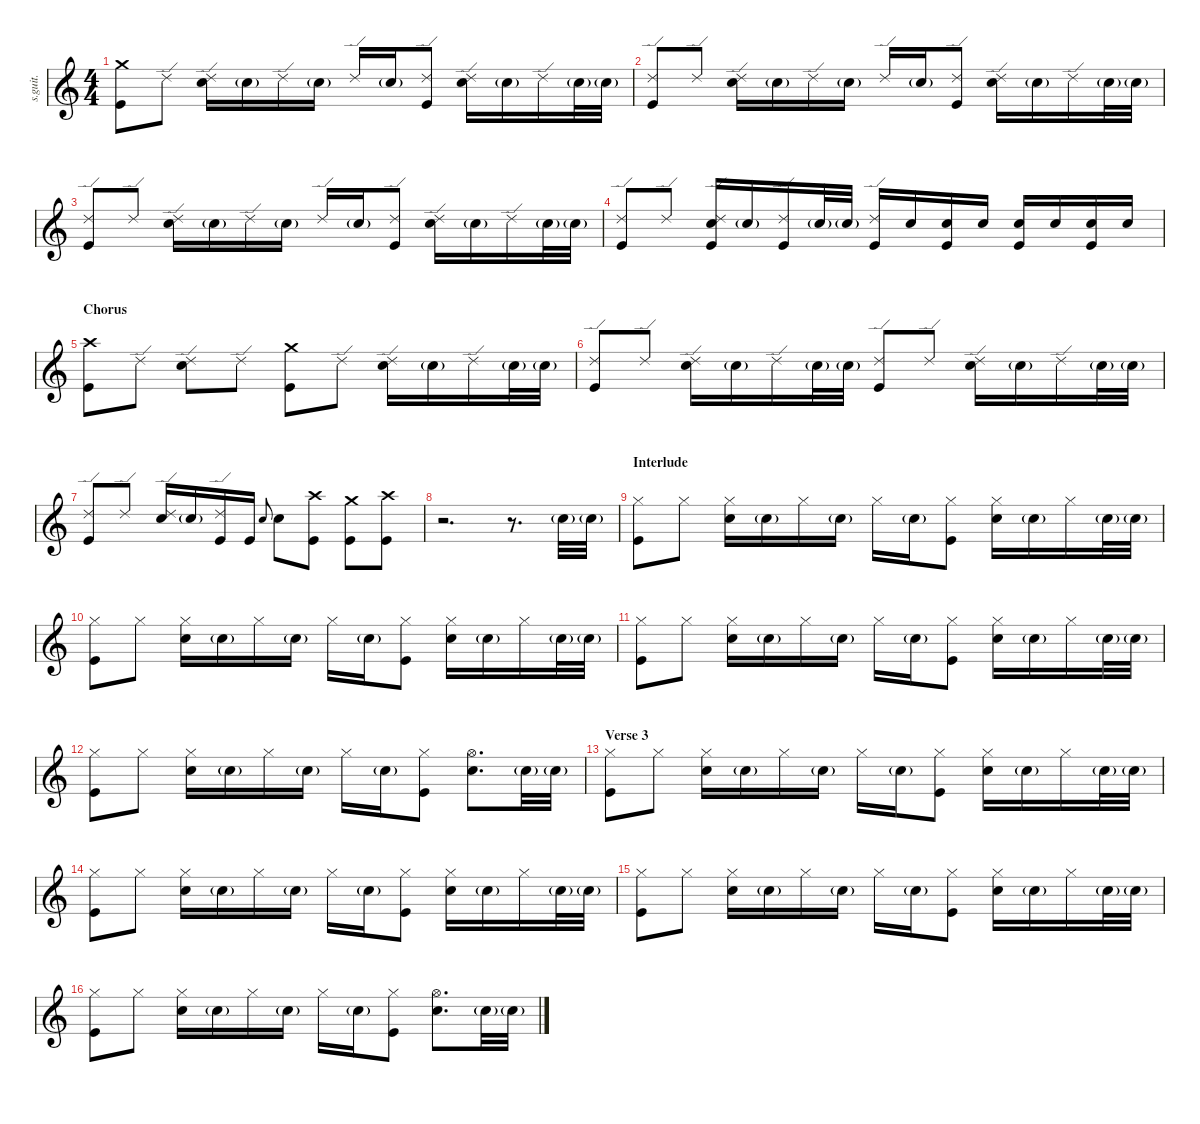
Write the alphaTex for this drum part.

\defaultSystemsLayout 4
\hideDynamics
\bracketExtendMode nobrackets
\track ("C. Smith" "s.guit.") {instrument percussion}
\staff {score}
\articulation defaults
\ts (4 4)
\tempo (96 hide)
\clef g2
\ks c
("Crash medium (hit)" "Kick (hit)").8{lyrics (0 "") lyrics (1 "") lyrics (2 "") lyrics (3 "") lyrics (4 "") dy f} "Ride (edge) 2".8{lyrics (0 "") lyrics (1 "") lyrics (2 "") lyrics (3 "") lyrics (4 "")} ("Ride (edge) 2" "Snare (hit) 2").16{lyrics (0 "") lyrics (1 "") lyrics (2 "") lyrics (3 "") lyrics (4 "")} "Snare (hit) 2"{g}.16{lyrics (0 "") lyrics (1 "") lyrics (2 "") lyrics (3 "") lyrics (4 "") dy ppp} "Ride (edge) 2".16{lyrics (0 "") lyrics (1 "") lyrics (2 "") lyrics (3 "") lyrics (4 "") dy f} "Snare (hit) 2"{g}.16{lyrics (0 "") lyrics (1 "") lyrics (2 "") lyrics (3 "") lyrics (4 "") dy ppp} "Ride (edge) 2".16{lyrics (0 "") lyrics (1 "") lyrics (2 "") lyrics (3 "") lyrics (4 "") dy f} "Snare (hit) 2"{g}.16{lyrics (0 "") lyrics (1 "") lyrics (2 "") lyrics (3 "") lyrics (4 "") dy ppp} ("Ride (edge) 2" "Kick (hit)").8{lyrics (0 "") lyrics (1 "") lyrics (2 "") lyrics (3 "") lyrics (4 "") dy f} ("Ride (edge) 2" "Snare (hit) 2").16{lyrics (0 "") lyrics (1 "") lyrics (2 "") lyrics (3 "") lyrics (4 "")} "Snare (hit) 2"{g}.16{lyrics (0 "") lyrics (1 "") lyrics (2 "") lyrics (3 "") lyrics (4 "") dy ppp} "Ride (edge) 2".16{lyrics (0 "") lyrics (1 "") lyrics (2 "") lyrics (3 "") lyrics (4 "") dy f} "Snare (hit) 2"{g}.32{lyrics (0 "") lyrics (1 "") lyrics (2 "") lyrics (3 "") lyrics (4 "") dy ppp} "Snare (hit) 2"{g}.32{lyrics (0 "") lyrics (1 "") lyrics (2 "") lyrics (3 "") lyrics (4 "")} |
("Ride (edge) 2" "Kick (hit)").8{lyrics (0 "") lyrics (1 "") lyrics (2 "") lyrics (3 "") lyrics (4 "") dy f} "Ride (edge) 2".8{lyrics (0 "") lyrics (1 "") lyrics (2 "") lyrics (3 "") lyrics (4 "")} ("Ride (edge) 2" "Snare (hit) 2").16{lyrics (0 "") lyrics (1 "") lyrics (2 "") lyrics (3 "") lyrics (4 "")} "Snare (hit) 2"{g}.16{lyrics (0 "") lyrics (1 "") lyrics (2 "") lyrics (3 "") lyrics (4 "") dy ppp} "Ride (edge) 2".16{lyrics (0 "") lyrics (1 "") lyrics (2 "") lyrics (3 "") lyrics (4 "") dy f} "Snare (hit) 2"{g}.16{lyrics (0 "") lyrics (1 "") lyrics (2 "") lyrics (3 "") lyrics (4 "") dy ppp} "Ride (edge) 2".16{lyrics (0 "") lyrics (1 "") lyrics (2 "") lyrics (3 "") lyrics (4 "") dy f} "Snare (hit) 2"{g}.16{lyrics (0 "") lyrics (1 "") lyrics (2 "") lyrics (3 "") lyrics (4 "") dy ppp} ("Ride (edge) 2" "Kick (hit)").8{lyrics (0 "") lyrics (1 "") lyrics (2 "") lyrics (3 "") lyrics (4 "") dy f} ("Ride (edge) 2" "Snare (hit) 2").16{lyrics (0 "") lyrics (1 "") lyrics (2 "") lyrics (3 "") lyrics (4 "")} "Snare (hit) 2"{g}.16{lyrics (0 "") lyrics (1 "") lyrics (2 "") lyrics (3 "") lyrics (4 "") dy ppp} "Ride (edge) 2".16{lyrics (0 "") lyrics (1 "") lyrics (2 "") lyrics (3 "") lyrics (4 "") dy f} "Snare (hit) 2"{g}.32{lyrics (0 "") lyrics (1 "") lyrics (2 "") lyrics (3 "") lyrics (4 "") dy ppp} "Snare (hit) 2"{g}.32{lyrics (0 "") lyrics (1 "") lyrics (2 "") lyrics (3 "") lyrics (4 "")} |
("Ride (edge) 2" "Kick (hit)").8{lyrics (0 "") lyrics (1 "") lyrics (2 "") lyrics (3 "") lyrics (4 "") dy f} "Ride (edge) 2".8{lyrics (0 "") lyrics (1 "") lyrics (2 "") lyrics (3 "") lyrics (4 "")} ("Ride (edge) 2" "Snare (hit) 2").16{lyrics (0 "") lyrics (1 "") lyrics (2 "") lyrics (3 "") lyrics (4 "")} "Snare (hit) 2"{g}.16{lyrics (0 "") lyrics (1 "") lyrics (2 "") lyrics (3 "") lyrics (4 "") dy ppp} "Ride (edge) 2".16{lyrics (0 "") lyrics (1 "") lyrics (2 "") lyrics (3 "") lyrics (4 "") dy f} "Snare (hit) 2"{g}.16{lyrics (0 "") lyrics (1 "") lyrics (2 "") lyrics (3 "") lyrics (4 "") dy ppp} "Ride (edge) 2".16{lyrics (0 "") lyrics (1 "") lyrics (2 "") lyrics (3 "") lyrics (4 "") dy f} "Snare (hit) 2"{g}.16{lyrics (0 "") lyrics (1 "") lyrics (2 "") lyrics (3 "") lyrics (4 "") dy ppp} ("Ride (edge) 2" "Kick (hit)").8{lyrics (0 "") lyrics (1 "") lyrics (2 "") lyrics (3 "") lyrics (4 "") dy f} ("Ride (edge) 2" "Snare (hit) 2").16{lyrics (0 "") lyrics (1 "") lyrics (2 "") lyrics (3 "") lyrics (4 "")} "Snare (hit) 2"{g}.16{lyrics (0 "") lyrics (1 "") lyrics (2 "") lyrics (3 "") lyrics (4 "") dy ppp} "Ride (edge) 2".16{lyrics (0 "") lyrics (1 "") lyrics (2 "") lyrics (3 "") lyrics (4 "") dy f} "Snare (hit) 2"{g}.32{lyrics (0 "") lyrics (1 "") lyrics (2 "") lyrics (3 "") lyrics (4 "") dy ppp} "Snare (hit) 2"{g}.32{lyrics (0 "") lyrics (1 "") lyrics (2 "") lyrics (3 "") lyrics (4 "")} |
("Ride (edge) 2" "Kick (hit)").8{lyrics (0 "") lyrics (1 "") lyrics (2 "") lyrics (3 "") lyrics (4 "") dy f} "Ride (edge) 2".8{lyrics (0 "") lyrics (1 "") lyrics (2 "") lyrics (3 "") lyrics (4 "")} ("Ride (edge) 2" "Snare (hit) 2" "Kick (hit)").16{lyrics (0 "") lyrics (1 "") lyrics (2 "") lyrics (3 "") lyrics (4 "")} "Snare (hit) 2"{g}.16{lyrics (0 "") lyrics (1 "") lyrics (2 "") lyrics (3 "") lyrics (4 "") dy ppp} ("Ride (edge) 2" "Kick (hit)").16{lyrics (0 "") lyrics (1 "") lyrics (2 "") lyrics (3 "") lyrics (4 "") dy f} "Snare (hit) 2"{g}.32{lyrics (0 "") lyrics (1 "") lyrics (2 "") lyrics (3 "") lyrics (4 "") dy ppp} "Snare (hit) 2"{g}.32{lyrics (0 "") lyrics (1 "") lyrics (2 "") lyrics (3 "") lyrics (4 "")} ("Ride (edge) 2" "Kick (hit)").16{lyrics (0 "") lyrics (1 "") lyrics (2 "") lyrics (3 "") lyrics (4 "") dy f} "Snare (hit) 2".16{lyrics (0 "") lyrics (1 "") lyrics (2 "") lyrics (3 "") lyrics (4 "") dy pp} ("Snare (hit) 2" "Kick (hit)").16{lyrics (0 "") lyrics (1 "") lyrics (2 "") lyrics (3 "") lyrics (4 "") dy p} "Snare (hit) 2".16{lyrics (0 "") lyrics (1 "") lyrics (2 "") lyrics (3 "") lyrics (4 "")} ("Snare (hit) 2" "Kick (hit)").16{lyrics (0 "") lyrics (1 "") lyrics (2 "") lyrics (3 "") lyrics (4 "") dy mf} "Snare (hit) 2".16{lyrics (0 "") lyrics (1 "") lyrics (2 "") lyrics (3 "") lyrics (4 "") dy f} ("Snare (hit) 2" "Kick (hit)").16{lyrics (0 "") lyrics (1 "") lyrics (2 "") lyrics (3 "") lyrics (4 "") dy ff} "Snare (hit) 2".16{lyrics (0 "") lyrics (1 "") lyrics (2 "") lyrics (3 "") lyrics (4 "") dy fff} |
\section ("" "Chorus")
("Crash high (hit)" "Kick (hit)").8{lyrics (0 "") lyrics (1 "") lyrics (2 "") lyrics (3 "") lyrics (4 "") dy f} "Ride (edge) 2".8{lyrics (0 "") lyrics (1 "") lyrics (2 "") lyrics (3 "") lyrics (4 "")} ("Ride (edge) 2" "Snare (hit) 2").8{lyrics (0 "") lyrics (1 "") lyrics (2 "") lyrics (3 "") lyrics (4 "")} "Ride (edge) 2".8{lyrics (0 "") lyrics (1 "") lyrics (2 "") lyrics (3 "") lyrics (4 "")} ("Crash medium (hit)" "Kick (hit)").8{lyrics (0 "") lyrics (1 "") lyrics (2 "") lyrics (3 "") lyrics (4 "")} "Ride (edge) 2".8{lyrics (0 "") lyrics (1 "") lyrics (2 "") lyrics (3 "") lyrics (4 "")} ("Ride (edge) 2" "Snare (hit) 2").16{lyrics (0 "") lyrics (1 "") lyrics (2 "") lyrics (3 "") lyrics (4 "")} "Snare (hit) 2"{g}.16{lyrics (0 "") lyrics (1 "") lyrics (2 "") lyrics (3 "") lyrics (4 "") dy ppp} "Ride (edge) 2".16{lyrics (0 "") lyrics (1 "") lyrics (2 "") lyrics (3 "") lyrics (4 "") dy f} "Snare (hit) 2"{g}.32{lyrics (0 "") lyrics (1 "") lyrics (2 "") lyrics (3 "") lyrics (4 "") dy ppp} "Snare (hit) 2"{g}.32{lyrics (0 "") lyrics (1 "") lyrics (2 "") lyrics (3 "") lyrics (4 "")} |
("Ride (edge) 2" "Kick (hit)").8{lyrics (0 "") lyrics (1 "") lyrics (2 "") lyrics (3 "") lyrics (4 "") dy f} "Ride (edge) 2".8{lyrics (0 "") lyrics (1 "") lyrics (2 "") lyrics (3 "") lyrics (4 "")} ("Ride (edge) 2" "Snare (hit) 2").16{lyrics (0 "") lyrics (1 "") lyrics (2 "") lyrics (3 "") lyrics (4 "")} "Snare (hit) 2"{g}.16{lyrics (0 "") lyrics (1 "") lyrics (2 "") lyrics (3 "") lyrics (4 "") dy ppp} "Ride (edge) 2".16{lyrics (0 "") lyrics (1 "") lyrics (2 "") lyrics (3 "") lyrics (4 "") dy f} "Snare (hit) 2"{g}.32{lyrics (0 "") lyrics (1 "") lyrics (2 "") lyrics (3 "") lyrics (4 "") dy ppp} "Snare (hit) 2"{g}.32{lyrics (0 "") lyrics (1 "") lyrics (2 "") lyrics (3 "") lyrics (4 "")} ("Ride (edge) 2" "Kick (hit)").8{lyrics (0 "") lyrics (1 "") lyrics (2 "") lyrics (3 "") lyrics (4 "") dy f} "Ride (edge) 2".8{lyrics (0 "") lyrics (1 "") lyrics (2 "") lyrics (3 "") lyrics (4 "")} ("Ride (edge) 2" "Snare (hit) 2").16{lyrics (0 "") lyrics (1 "") lyrics (2 "") lyrics (3 "") lyrics (4 "")} "Snare (hit) 2"{g}.16{lyrics (0 "") lyrics (1 "") lyrics (2 "") lyrics (3 "") lyrics (4 "") dy ppp} "Ride (edge) 2".16{lyrics (0 "") lyrics (1 "") lyrics (2 "") lyrics (3 "") lyrics (4 "") dy f} "Snare (hit) 2"{g}.32{lyrics (0 "") lyrics (1 "") lyrics (2 "") lyrics (3 "") lyrics (4 "") dy ppp} "Snare (hit) 2"{g}.32{lyrics (0 "") lyrics (1 "") lyrics (2 "") lyrics (3 "") lyrics (4 "")} |
("Ride (edge) 2" "Kick (hit)").8{lyrics (0 "") lyrics (1 "") lyrics (2 "") lyrics (3 "") lyrics (4 "") dy f} "Ride (edge) 2".8{lyrics (0 "") lyrics (1 "") lyrics (2 "") lyrics (3 "") lyrics (4 "")} ("Ride (edge) 2" "Snare (hit) 2").16{lyrics (0 "") lyrics (1 "") lyrics (2 "") lyrics (3 "") lyrics (4 "")} "Snare (hit) 2"{g}.16{lyrics (0 "") lyrics (1 "") lyrics (2 "") lyrics (3 "") lyrics (4 "") dy ppp} ("Ride (edge) 2" "Kick (hit)").16{lyrics (0 "") lyrics (1 "") lyrics (2 "") lyrics (3 "") lyrics (4 "") dy f} "Kick (hit)".16{lyrics (0 "") lyrics (1 "") lyrics (2 "") lyrics (3 "") lyrics (4 "")} "Snare (hit) 2".8{lyrics (0 "") lyrics (1 "") lyrics (2 "") lyrics (3 "") lyrics (4 "") gr onbeat} "Snare (hit) 2".8{lyrics (0 "") lyrics (1 "") lyrics (2 "") lyrics (3 "") lyrics (4 "")} ("Crash high (hit)" "Kick (hit)").8{lyrics (0 "") lyrics (1 "") lyrics (2 "") lyrics (3 "") lyrics (4 "")} ("Crash medium (hit)" "Kick (hit)").8{lyrics (0 "") lyrics (1 "") lyrics (2 "") lyrics (3 "") lyrics (4 "")} ("Crash high (hit)" "Kick (hit)").8{lyrics (0 "") lyrics (1 "") lyrics (2 "") lyrics (3 "") lyrics (4 "")} |
r.2{d} r.8{d} "Snare (hit) 2"{g}.32{lyrics (0 "") lyrics (1 "") lyrics (2 "") lyrics (3 "") lyrics (4 "") dy ppp} "Snare (hit) 2"{g}.32{lyrics (0 "") lyrics (1 "") lyrics (2 "") lyrics (3 "") lyrics (4 "")} |
\section ("" "Interlude")
("Hi-Hat (closed)" "Kick (hit)").8{lyrics (0 "") lyrics (1 "") lyrics (2 "") lyrics (3 "") lyrics (4 "") dy f} "Hi-Hat (closed)".8{lyrics (0 "") lyrics (1 "") lyrics (2 "") lyrics (3 "") lyrics (4 "") dy mp} ("Hi-Hat (closed)" "Snare (hit) 2").16{lyrics (0 "") lyrics (1 "") lyrics (2 "") lyrics (3 "") lyrics (4 "") dy f} "Snare (hit) 2"{g}.16{lyrics (0 "") lyrics (1 "") lyrics (2 "") lyrics (3 "") lyrics (4 "") dy ppp} "Hi-Hat (closed)".16{lyrics (0 "") lyrics (1 "") lyrics (2 "") lyrics (3 "") lyrics (4 "") dy mp} "Snare (hit) 2"{g}.16{lyrics (0 "") lyrics (1 "") lyrics (2 "") lyrics (3 "") lyrics (4 "") dy ppp} "Hi-Hat (closed)".16{lyrics (0 "") lyrics (1 "") lyrics (2 "") lyrics (3 "") lyrics (4 "") dy fff} "Snare (hit) 2"{g}.16{lyrics (0 "") lyrics (1 "") lyrics (2 "") lyrics (3 "") lyrics (4 "") dy ppp} ("Hi-Hat (closed)" "Kick (hit)").8{lyrics (0 "") lyrics (1 "") lyrics (2 "") lyrics (3 "") lyrics (4 "") dy f} ("Hi-Hat (closed)" "Snare (hit) 2").16{lyrics (0 "") lyrics (1 "") lyrics (2 "") lyrics (3 "") lyrics (4 "")} "Snare (hit) 2"{g}.16{lyrics (0 "") lyrics (1 "") lyrics (2 "") lyrics (3 "") lyrics (4 "") dy ppp} "Hi-Hat (closed)".16{lyrics (0 "") lyrics (1 "") lyrics (2 "") lyrics (3 "") lyrics (4 "") dy mp} "Snare (hit) 2"{g}.32{lyrics (0 "") lyrics (1 "") lyrics (2 "") lyrics (3 "") lyrics (4 "") dy ppp} "Snare (hit) 2"{g}.32{lyrics (0 "") lyrics (1 "") lyrics (2 "") lyrics (3 "") lyrics (4 "")} |
("Hi-Hat (closed)" "Kick (hit)").8{lyrics (0 "") lyrics (1 "") lyrics (2 "") lyrics (3 "") lyrics (4 "") dy f} "Hi-Hat (closed)".8{lyrics (0 "") lyrics (1 "") lyrics (2 "") lyrics (3 "") lyrics (4 "") dy mp} ("Hi-Hat (closed)" "Snare (hit) 2").16{lyrics (0 "") lyrics (1 "") lyrics (2 "") lyrics (3 "") lyrics (4 "") dy f} "Snare (hit) 2"{g}.16{lyrics (0 "") lyrics (1 "") lyrics (2 "") lyrics (3 "") lyrics (4 "") dy ppp} "Hi-Hat (closed)".16{lyrics (0 "") lyrics (1 "") lyrics (2 "") lyrics (3 "") lyrics (4 "") dy mp} "Snare (hit) 2"{g}.16{lyrics (0 "") lyrics (1 "") lyrics (2 "") lyrics (3 "") lyrics (4 "") dy ppp} "Hi-Hat (closed)".16{lyrics (0 "") lyrics (1 "") lyrics (2 "") lyrics (3 "") lyrics (4 "") dy fff} "Snare (hit) 2"{g}.16{lyrics (0 "") lyrics (1 "") lyrics (2 "") lyrics (3 "") lyrics (4 "") dy ppp} ("Hi-Hat (closed)" "Kick (hit)").8{lyrics (0 "") lyrics (1 "") lyrics (2 "") lyrics (3 "") lyrics (4 "") dy f} ("Hi-Hat (closed)" "Snare (hit) 2").16{lyrics (0 "") lyrics (1 "") lyrics (2 "") lyrics (3 "") lyrics (4 "")} "Snare (hit) 2"{g}.16{lyrics (0 "") lyrics (1 "") lyrics (2 "") lyrics (3 "") lyrics (4 "") dy ppp} "Hi-Hat (closed)".16{lyrics (0 "") lyrics (1 "") lyrics (2 "") lyrics (3 "") lyrics (4 "") dy mp} "Snare (hit) 2"{g}.32{lyrics (0 "") lyrics (1 "") lyrics (2 "") lyrics (3 "") lyrics (4 "") dy ppp} "Snare (hit) 2"{g}.32{lyrics (0 "") lyrics (1 "") lyrics (2 "") lyrics (3 "") lyrics (4 "")} |
("Hi-Hat (closed)" "Kick (hit)").8{lyrics (0 "") lyrics (1 "") lyrics (2 "") lyrics (3 "") lyrics (4 "") dy f} "Hi-Hat (closed)".8{lyrics (0 "") lyrics (1 "") lyrics (2 "") lyrics (3 "") lyrics (4 "") dy mp} ("Hi-Hat (closed)" "Snare (hit) 2").16{lyrics (0 "") lyrics (1 "") lyrics (2 "") lyrics (3 "") lyrics (4 "") dy f} "Snare (hit) 2"{g}.16{lyrics (0 "") lyrics (1 "") lyrics (2 "") lyrics (3 "") lyrics (4 "") dy ppp} "Hi-Hat (closed)".16{lyrics (0 "") lyrics (1 "") lyrics (2 "") lyrics (3 "") lyrics (4 "") dy mp} "Snare (hit) 2"{g}.16{lyrics (0 "") lyrics (1 "") lyrics (2 "") lyrics (3 "") lyrics (4 "") dy ppp} "Hi-Hat (closed)".16{lyrics (0 "") lyrics (1 "") lyrics (2 "") lyrics (3 "") lyrics (4 "") dy fff} "Snare (hit) 2"{g}.16{lyrics (0 "") lyrics (1 "") lyrics (2 "") lyrics (3 "") lyrics (4 "") dy ppp} ("Hi-Hat (closed)" "Kick (hit)").8{lyrics (0 "") lyrics (1 "") lyrics (2 "") lyrics (3 "") lyrics (4 "") dy f} ("Hi-Hat (closed)" "Snare (hit) 2").16{lyrics (0 "") lyrics (1 "") lyrics (2 "") lyrics (3 "") lyrics (4 "")} "Snare (hit) 2"{g}.16{lyrics (0 "") lyrics (1 "") lyrics (2 "") lyrics (3 "") lyrics (4 "") dy ppp} "Hi-Hat (closed)".16{lyrics (0 "") lyrics (1 "") lyrics (2 "") lyrics (3 "") lyrics (4 "") dy mp} "Snare (hit) 2"{g}.32{lyrics (0 "") lyrics (1 "") lyrics (2 "") lyrics (3 "") lyrics (4 "") dy ppp} "Snare (hit) 2"{g}.32{lyrics (0 "") lyrics (1 "") lyrics (2 "") lyrics (3 "") lyrics (4 "")} |
("Hi-Hat (closed)" "Kick (hit)").8{lyrics (0 "") lyrics (1 "") lyrics (2 "") lyrics (3 "") lyrics (4 "") dy f} "Hi-Hat (closed)".8{lyrics (0 "") lyrics (1 "") lyrics (2 "") lyrics (3 "") lyrics (4 "") dy mp} ("Hi-Hat (closed)" "Snare (hit) 2").16{lyrics (0 "") lyrics (1 "") lyrics (2 "") lyrics (3 "") lyrics (4 "") dy f} "Snare (hit) 2"{g}.16{lyrics (0 "") lyrics (1 "") lyrics (2 "") lyrics (3 "") lyrics (4 "") dy ppp} "Hi-Hat (closed)".16{lyrics (0 "") lyrics (1 "") lyrics (2 "") lyrics (3 "") lyrics (4 "") dy mp} "Snare (hit) 2"{g}.16{lyrics (0 "") lyrics (1 "") lyrics (2 "") lyrics (3 "") lyrics (4 "") dy ppp} "Hi-Hat (closed)".16{lyrics (0 "") lyrics (1 "") lyrics (2 "") lyrics (3 "") lyrics (4 "") dy fff} "Snare (hit) 2"{g}.16{lyrics (0 "") lyrics (1 "") lyrics (2 "") lyrics (3 "") lyrics (4 "") dy ppp} ("Hi-Hat (closed)" "Kick (hit)").8{lyrics (0 "") lyrics (1 "") lyrics (2 "") lyrics (3 "") lyrics (4 "") dy f} ("Hi-Hat (open)" "Snare (hit) 2").8{d lyrics (0 "") lyrics (1 "") lyrics (2 "") lyrics (3 "") lyrics (4 "")} "Snare (hit) 2"{g}.32{lyrics (0 "") lyrics (1 "") lyrics (2 "") lyrics (3 "") lyrics (4 "") dy ppp} "Snare (hit) 2"{g}.32{lyrics (0 "") lyrics (1 "") lyrics (2 "") lyrics (3 "") lyrics (4 "")} |
\section ("" "Verse 3")
("Hi-Hat (closed)" "Kick (hit)").8{lyrics (0 "") lyrics (1 "") lyrics (2 "") lyrics (3 "") lyrics (4 "") dy f} "Hi-Hat (closed)".8{lyrics (0 "") lyrics (1 "") lyrics (2 "") lyrics (3 "") lyrics (4 "") dy mp} ("Hi-Hat (closed)" "Snare (hit) 2").16{lyrics (0 "") lyrics (1 "") lyrics (2 "") lyrics (3 "") lyrics (4 "") dy f} "Snare (hit) 2"{g}.16{lyrics (0 "") lyrics (1 "") lyrics (2 "") lyrics (3 "") lyrics (4 "") dy ppp} "Hi-Hat (closed)".16{lyrics (0 "") lyrics (1 "") lyrics (2 "") lyrics (3 "") lyrics (4 "") dy mp} "Snare (hit) 2"{g}.16{lyrics (0 "") lyrics (1 "") lyrics (2 "") lyrics (3 "") lyrics (4 "") dy ppp} "Hi-Hat (closed)".16{lyrics (0 "") lyrics (1 "") lyrics (2 "") lyrics (3 "") lyrics (4 "") dy fff} "Snare (hit) 2"{g}.16{lyrics (0 "") lyrics (1 "") lyrics (2 "") lyrics (3 "") lyrics (4 "") dy ppp} ("Hi-Hat (closed)" "Kick (hit)").8{lyrics (0 "") lyrics (1 "") lyrics (2 "") lyrics (3 "") lyrics (4 "") dy f} ("Hi-Hat (closed)" "Snare (hit) 2").16{lyrics (0 "") lyrics (1 "") lyrics (2 "") lyrics (3 "") lyrics (4 "")} "Snare (hit) 2"{g}.16{lyrics (0 "") lyrics (1 "") lyrics (2 "") lyrics (3 "") lyrics (4 "") dy ppp} "Hi-Hat (closed)".16{lyrics (0 "") lyrics (1 "") lyrics (2 "") lyrics (3 "") lyrics (4 "") dy mp} "Snare (hit) 2"{g}.32{lyrics (0 "") lyrics (1 "") lyrics (2 "") lyrics (3 "") lyrics (4 "") dy ppp} "Snare (hit) 2"{g}.32{lyrics (0 "") lyrics (1 "") lyrics (2 "") lyrics (3 "") lyrics (4 "")} |
("Hi-Hat (closed)" "Kick (hit)").8{lyrics (0 "") lyrics (1 "") lyrics (2 "") lyrics (3 "") lyrics (4 "") dy f} "Hi-Hat (closed)".8{lyrics (0 "") lyrics (1 "") lyrics (2 "") lyrics (3 "") lyrics (4 "") dy mp} ("Hi-Hat (closed)" "Snare (hit) 2").16{lyrics (0 "") lyrics (1 "") lyrics (2 "") lyrics (3 "") lyrics (4 "") dy f} "Snare (hit) 2"{g}.16{lyrics (0 "") lyrics (1 "") lyrics (2 "") lyrics (3 "") lyrics (4 "") dy ppp} "Hi-Hat (closed)".16{lyrics (0 "") lyrics (1 "") lyrics (2 "") lyrics (3 "") lyrics (4 "") dy mp} "Snare (hit) 2"{g}.16{lyrics (0 "") lyrics (1 "") lyrics (2 "") lyrics (3 "") lyrics (4 "") dy ppp} "Hi-Hat (closed)".16{lyrics (0 "") lyrics (1 "") lyrics (2 "") lyrics (3 "") lyrics (4 "") dy fff} "Snare (hit) 2"{g}.16{lyrics (0 "") lyrics (1 "") lyrics (2 "") lyrics (3 "") lyrics (4 "") dy ppp} ("Hi-Hat (closed)" "Kick (hit)").8{lyrics (0 "") lyrics (1 "") lyrics (2 "") lyrics (3 "") lyrics (4 "") dy f} ("Hi-Hat (closed)" "Snare (hit) 2").16{lyrics (0 "") lyrics (1 "") lyrics (2 "") lyrics (3 "") lyrics (4 "")} "Snare (hit) 2"{g}.16{lyrics (0 "") lyrics (1 "") lyrics (2 "") lyrics (3 "") lyrics (4 "") dy ppp} "Hi-Hat (closed)".16{lyrics (0 "") lyrics (1 "") lyrics (2 "") lyrics (3 "") lyrics (4 "") dy mp} "Snare (hit) 2"{g}.32{lyrics (0 "") lyrics (1 "") lyrics (2 "") lyrics (3 "") lyrics (4 "") dy ppp} "Snare (hit) 2"{g}.32{lyrics (0 "") lyrics (1 "") lyrics (2 "") lyrics (3 "") lyrics (4 "")} |
("Hi-Hat (closed)" "Kick (hit)").8{lyrics (0 "") lyrics (1 "") lyrics (2 "") lyrics (3 "") lyrics (4 "") dy f} "Hi-Hat (closed)".8{lyrics (0 "") lyrics (1 "") lyrics (2 "") lyrics (3 "") lyrics (4 "") dy mp} ("Hi-Hat (closed)" "Snare (hit) 2").16{lyrics (0 "") lyrics (1 "") lyrics (2 "") lyrics (3 "") lyrics (4 "") dy f} "Snare (hit) 2"{g}.16{lyrics (0 "") lyrics (1 "") lyrics (2 "") lyrics (3 "") lyrics (4 "") dy ppp} "Hi-Hat (closed)".16{lyrics (0 "") lyrics (1 "") lyrics (2 "") lyrics (3 "") lyrics (4 "") dy mp} "Snare (hit) 2"{g}.16{lyrics (0 "") lyrics (1 "") lyrics (2 "") lyrics (3 "") lyrics (4 "") dy ppp} "Hi-Hat (closed)".16{lyrics (0 "") lyrics (1 "") lyrics (2 "") lyrics (3 "") lyrics (4 "") dy fff} "Snare (hit) 2"{g}.16{lyrics (0 "") lyrics (1 "") lyrics (2 "") lyrics (3 "") lyrics (4 "") dy ppp} ("Hi-Hat (closed)" "Kick (hit)").8{lyrics (0 "") lyrics (1 "") lyrics (2 "") lyrics (3 "") lyrics (4 "") dy f} ("Hi-Hat (closed)" "Snare (hit) 2").16{lyrics (0 "") lyrics (1 "") lyrics (2 "") lyrics (3 "") lyrics (4 "")} "Snare (hit) 2"{g}.16{lyrics (0 "") lyrics (1 "") lyrics (2 "") lyrics (3 "") lyrics (4 "") dy ppp} "Hi-Hat (closed)".16{lyrics (0 "") lyrics (1 "") lyrics (2 "") lyrics (3 "") lyrics (4 "") dy mp} "Snare (hit) 2"{g}.32{lyrics (0 "") lyrics (1 "") lyrics (2 "") lyrics (3 "") lyrics (4 "") dy ppp} "Snare (hit) 2"{g}.32{lyrics (0 "") lyrics (1 "") lyrics (2 "") lyrics (3 "") lyrics (4 "")} |
("Hi-Hat (closed)" "Kick (hit)").8{lyrics (0 "") lyrics (1 "") lyrics (2 "") lyrics (3 "") lyrics (4 "") dy f} "Hi-Hat (closed)".8{lyrics (0 "") lyrics (1 "") lyrics (2 "") lyrics (3 "") lyrics (4 "") dy mp} ("Hi-Hat (closed)" "Snare (hit) 2").16{lyrics (0 "") lyrics (1 "") lyrics (2 "") lyrics (3 "") lyrics (4 "") dy f} "Snare (hit) 2"{g}.16{lyrics (0 "") lyrics (1 "") lyrics (2 "") lyrics (3 "") lyrics (4 "") dy ppp} "Hi-Hat (closed)".16{lyrics (0 "") lyrics (1 "") lyrics (2 "") lyrics (3 "") lyrics (4 "") dy mp} "Snare (hit) 2"{g}.16{lyrics (0 "") lyrics (1 "") lyrics (2 "") lyrics (3 "") lyrics (4 "") dy ppp} "Hi-Hat (closed)".16{lyrics (0 "") lyrics (1 "") lyrics (2 "") lyrics (3 "") lyrics (4 "") dy fff} "Snare (hit) 2"{g}.16{lyrics (0 "") lyrics (1 "") lyrics (2 "") lyrics (3 "") lyrics (4 "") dy ppp} ("Hi-Hat (closed)" "Kick (hit)").8{lyrics (0 "") lyrics (1 "") lyrics (2 "") lyrics (3 "") lyrics (4 "") dy f} ("Hi-Hat (open)" "Snare (hit) 2").8{d lyrics (0 "") lyrics (1 "") lyrics (2 "") lyrics (3 "") lyrics (4 "")} "Snare (hit) 2"{g}.32{lyrics (0 "") lyrics (1 "") lyrics (2 "") lyrics (3 "") lyrics (4 "") dy ppp} "Snare (hit) 2"{g}.32{lyrics (0 "") lyrics (1 "") lyrics (2 "") lyrics (3 "") lyrics (4 "")}
